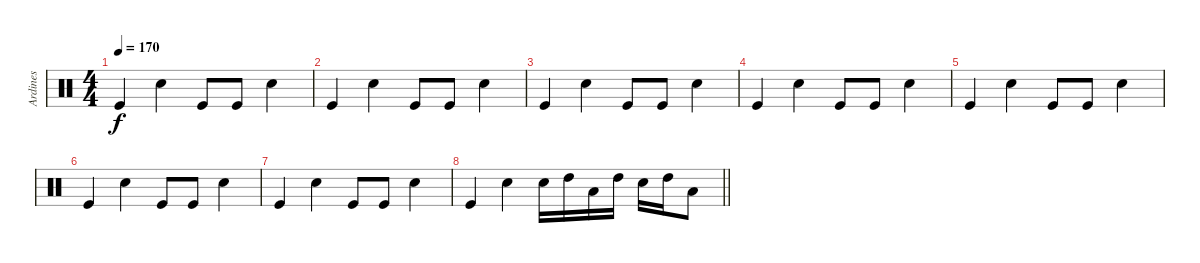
\track ("Ardines" "Ardines") {instrument percussion}
\staff {score}
\articulation defaults
\ts (4 4)
\tempo 170
\clef neutral
\ks c "Kick (hit)".4{dy f} "Snare (hit) 2".4 "Kick (hit)".8 "Kick (hit)".8 "Snare (hit) 2".4
|
"Kick (hit)".4 "Snare (hit) 2".4 "Kick (hit)".8 "Kick (hit)".8 "Snare (hit) 2".4 |
"Kick (hit)".4 "Snare (hit) 2".4 "Kick (hit)".8 "Kick (hit)".8 "Snare (hit) 2".4 |
"Kick (hit)".4 "Snare (hit) 2".4 "Kick (hit)".8 "Kick (hit)".8 "Snare (hit) 2".4 |
"Kick (hit)".4{volume 7} "Snare (hit) 2".4 "Kick (hit)".8 "Kick (hit)".8 "Snare (hit) 2".4 |
"Kick (hit)".4 "Snare (hit) 2".4 "Kick (hit)".8 "Kick (hit)".8 "Snare (hit) 2".4 |
"Kick (hit)".4 "Snare (hit) 2".4 "Kick (hit)".8 "Kick (hit)".8{volume 0} "Snare (hit) 2".4 |
\barLineRight lightlight "Kick (hit)".4 "Snare (hit) 2".4 "Snare (hit) 2".16 "High Tom (hit)".16 "Low Tom (hit)".16 "High Tom (hit)".16 "Snare (hit) 2".16 "High Tom (hit)".16 "Low Tom (hit)".8
